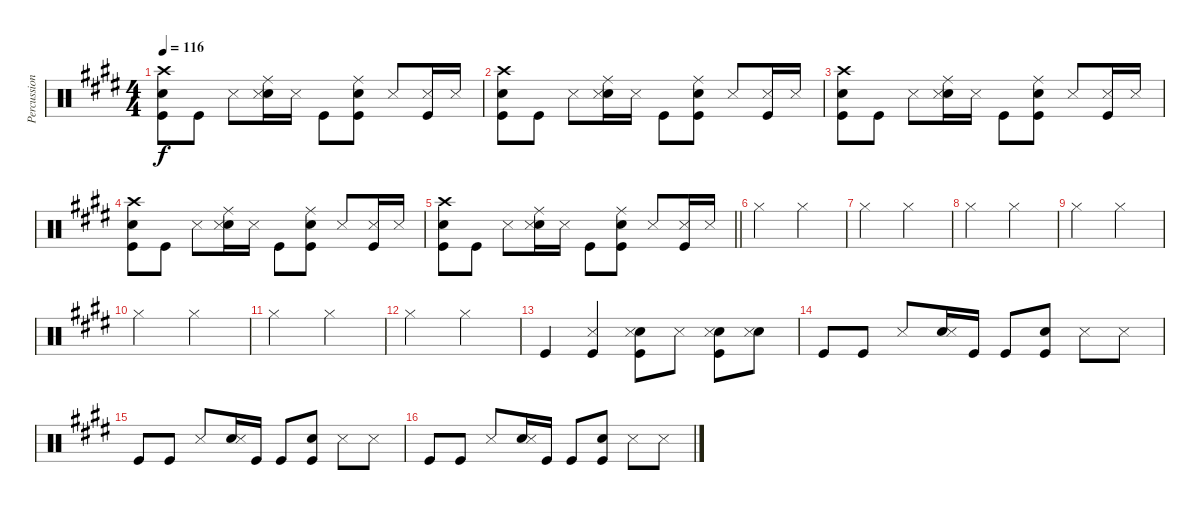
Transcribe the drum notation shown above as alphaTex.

\track ("Percussion" "Percussion") {instrument percussion}
\staff {score}
\articulation defaults
\ts (4 4)
\tempo 116
\clef neutral
\ks e
("Crash high (hit)" "Electric Snare (hit)" "Kick (hit)").8{dy f} "Kick (hit)".8 "Snare (side stick) 3".8 ("Ride (middle)" "Electric Snare (hit)" "Snare (side stick) 3").16 "Snare (side stick) 3".16 "Kick (hit)".8 ("Ride (middle)" "Electric Snare (hit)" "Kick (hit)").8 "Snare (side stick) 3".8 ("Snare (side stick) 3" "Kick (hit)").16 "Snare (side stick) 3".16 |
("Crash high (hit)" "Electric Snare (hit)" "Kick (hit)").8 "Kick (hit)".8 "Snare (side stick) 3".8 ("Ride (middle)" "Electric Snare (hit)" "Snare (side stick) 3").16 "Snare (side stick) 3".16 "Kick (hit)".8 ("Ride (middle)" "Electric Snare (hit)" "Kick (hit)").8 "Snare (side stick) 3".8 ("Snare (side stick) 3" "Kick (hit)").16 "Snare (side stick) 3".16 |
("Crash high (hit)" "Electric Snare (hit)" "Kick (hit)").8 "Kick (hit)".8 "Snare (side stick) 3".8 ("Ride (middle)" "Electric Snare (hit)" "Snare (side stick) 3").16 "Snare (side stick) 3".16 "Kick (hit)".8 ("Ride (middle)" "Electric Snare (hit)" "Kick (hit)").8 "Snare (side stick) 3".8 ("Snare (side stick) 3" "Kick (hit)").16 "Snare (side stick) 3".16 |
("Crash high (hit)" "Electric Snare (hit)" "Kick (hit)").8 "Kick (hit)".8 "Snare (side stick) 3".8 ("Ride (middle)" "Electric Snare (hit)" "Snare (side stick) 3").16 "Snare (side stick) 3".16 "Kick (hit)".8 ("Ride (middle)" "Electric Snare (hit)" "Kick (hit)").8 "Snare (side stick) 3".8 ("Snare (side stick) 3" "Kick (hit)").16 "Snare (side stick) 3".16 |
\barLineRight lightlight
("Crash high (hit)" "Electric Snare (hit)" "Kick (hit)").8 "Kick (hit)".8 "Snare (side stick) 3".8 ("Ride (middle)" "Electric Snare (hit)" "Snare (side stick) 3").16 "Snare (side stick) 3".16 "Kick (hit)".8 ("Ride (middle)" "Electric Snare (hit)" "Kick (hit)").8 "Snare (side stick) 3".8 ("Snare (side stick) 3" "Kick (hit)").16 "Snare (side stick) 3".16 |
"Hi-Hat (closed)".2 "Hi-Hat (closed)".2 |
"Hi-Hat (closed)".2 "Hi-Hat (closed)".2 |
"Hi-Hat (closed)".2 "Hi-Hat (closed)".2 |
"Hi-Hat (closed)".2 "Hi-Hat (closed)".2 |
"Hi-Hat (closed)".2 "Hi-Hat (closed)".2 |
"Hi-Hat (closed)".2 "Hi-Hat (closed)".2 |
"Hi-Hat (closed)".2 "Hi-Hat (closed)".2 |
"Kick (hit)".4 ("Snare (side stick) 3" "Kick (hit)").4 ("Electric Snare (hit)" "Snare (side stick) 3" "Kick (hit)").8 "Snare (side stick) 3".8 ("Electric Snare (hit)" "Snare (side stick) 3" "Kick (hit)").8 ("Electric Snare (hit)" "Snare (side stick) 3").8 |
"Kick (hit)".8 "Kick (hit)".8 "Snare (side stick) 3".8 ("Electric Snare (hit)" "Snare (side stick) 3").16 "Kick (hit)".16 "Kick (hit)".8 ("Electric Snare (hit)" "Kick (hit)").8 "Snare (side stick) 3".8 "Snare (side stick) 3".8 |
"Kick (hit)".8 "Kick (hit)".8 "Snare (side stick) 3".8 ("Electric Snare (hit)" "Snare (side stick) 3").16 "Kick (hit)".16 "Kick (hit)".8 ("Electric Snare (hit)" "Kick (hit)").8 "Snare (side stick) 3".8 "Snare (side stick) 3".8 |
"Kick (hit)".8 "Kick (hit)".8 "Snare (side stick) 3".8 ("Electric Snare (hit)" "Snare (side stick) 3").16 "Kick (hit)".16 "Kick (hit)".8 ("Electric Snare (hit)" "Kick (hit)").8 "Snare (side stick) 3".8 "Snare (side stick) 3".8
